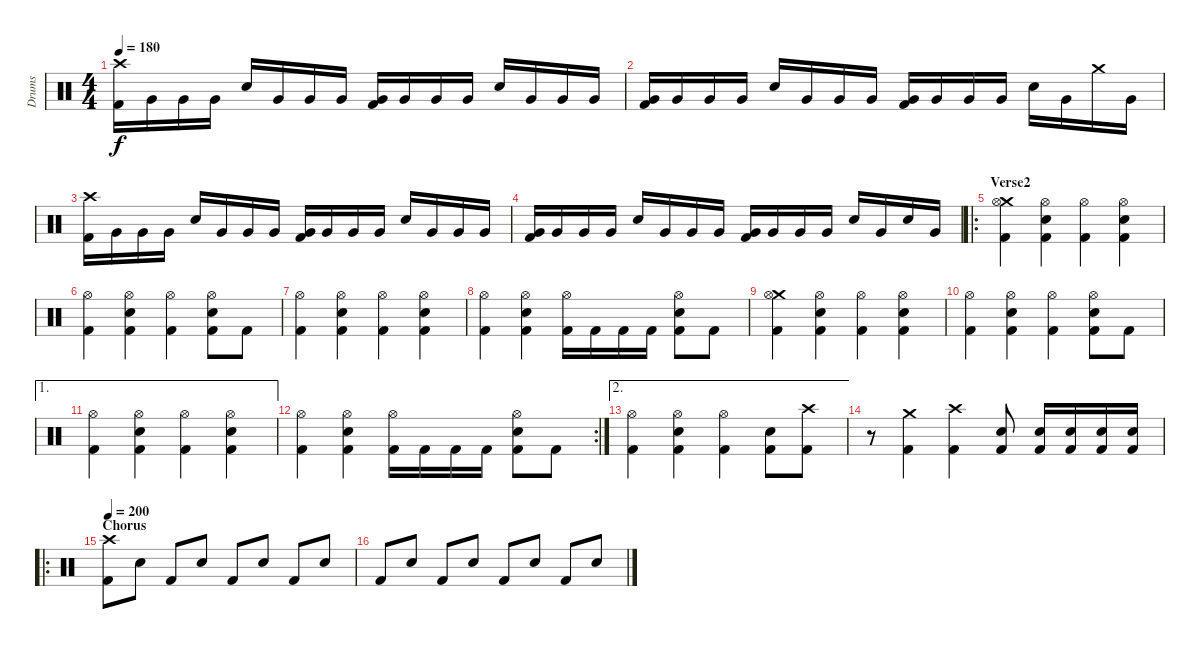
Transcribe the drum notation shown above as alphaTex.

\track ("Drums" "Drums") {instrument percussion}
\staff {score}
\articulation defaults
\ts (4 4)
\tempo 180
\clef neutral
\ks c
("Crash high (hit)" "Kick (hit) 2").16{dy f} "Very Low Tom (hit)".16 "Very Low Tom (hit)".16 "Very Low Tom (hit)".16 "Snare (hit) 2".16 "Very Low Tom (hit)".16 "Very Low Tom (hit)".16 "Very Low Tom (hit)".16 ("Kick (hit) 2" "Very Low Tom (hit)").16 "Very Low Tom (hit)".16 "Very Low Tom (hit)".16 "Very Low Tom (hit)".16 "Snare (hit) 2".16 "Very Low Tom (hit)".16 "Very Low Tom (hit)".16 "Very Low Tom (hit)".16 |
("Kick (hit) 2" "Very Low Tom (hit)").16 "Very Low Tom (hit)".16 "Very Low Tom (hit)".16 "Very Low Tom (hit)".16 "Snare (hit) 2".16 "Very Low Tom (hit)".16 "Very Low Tom (hit)".16 "Very Low Tom (hit)".16 ("Kick (hit) 2" "Very Low Tom (hit)").16 "Very Low Tom (hit)".16 "Very Low Tom (hit)".16 "Very Low Tom (hit)".16 "Snare (hit) 2".16 "Very Low Tom (hit)".16 "Crash medium (hit)".16 "Very Low Tom (hit)".16 |
("Crash high (hit)" "Kick (hit) 2").16 "Very Low Tom (hit)".16 "Very Low Tom (hit)".16 "Very Low Tom (hit)".16 "Snare (hit) 2".16 "Very Low Tom (hit)".16 "Very Low Tom (hit)".16 "Very Low Tom (hit)".16 ("Kick (hit) 2" "Very Low Tom (hit)").16 "Very Low Tom (hit)".16 "Very Low Tom (hit)".16 "Very Low Tom (hit)".16 "Snare (hit) 2".16 "Very Low Tom (hit)".16 "Very Low Tom (hit)".16 "Very Low Tom (hit)".16 |
("Kick (hit) 2" "Very Low Tom (hit)").16 "Very Low Tom (hit)".16 "Very Low Tom (hit)".16 "Very Low Tom (hit)".16 "Snare (hit) 2".16 "Very Low Tom (hit)".16 "Very Low Tom (hit)".16 "Very Low Tom (hit)".16 ("Kick (hit) 2" "Very Low Tom (hit)").16 "Very Low Tom (hit)".16 "Very Low Tom (hit)".16 "Very Low Tom (hit)".16 "Snare (hit) 2".16 "Very Low Tom (hit)".16 "Snare (hit) 2".16 "Very Low Tom (hit)".16 |
\ro
\section ("" "Verse2")
("Crash medium (hit)" "Hi-Hat (open)" "Kick (hit) 2").4{volume 12} ("Hi-Hat (open)" "Snare (hit) 2" "Kick (hit) 2").4 ("Hi-Hat (open)" "Kick (hit) 2").4 ("Hi-Hat (open)" "Snare (hit) 2" "Kick (hit) 2").4 |
("Hi-Hat (open)" "Kick (hit) 2").4 ("Hi-Hat (open)" "Snare (hit) 2" "Kick (hit) 2").4 ("Hi-Hat (open)" "Kick (hit) 2").4 ("Hi-Hat (open)" "Snare (hit) 2" "Kick (hit) 2").8 "Kick (hit) 2".8 |
("Hi-Hat (open)" "Kick (hit) 2").4 ("Hi-Hat (open)" "Snare (hit) 2" "Kick (hit) 2").4 ("Hi-Hat (open)" "Kick (hit) 2").4 ("Hi-Hat (open)" "Snare (hit) 2" "Kick (hit) 2").4 |
("Hi-Hat (open)" "Kick (hit) 2").4 ("Hi-Hat (open)" "Snare (hit) 2" "Kick (hit) 2").4 ("Hi-Hat (open)" "Kick (hit) 2").16 "Kick (hit) 2".16 "Kick (hit) 2".16 "Kick (hit) 2".16 ("Hi-Hat (open)" "Snare (hit) 2" "Kick (hit) 2").8 "Kick (hit) 2".8 |
("Crash medium (hit)" "Hi-Hat (open)" "Kick (hit) 2").4 ("Hi-Hat (open)" "Snare (hit) 2" "Kick (hit) 2").4 ("Hi-Hat (open)" "Kick (hit) 2").4 ("Hi-Hat (open)" "Snare (hit) 2" "Kick (hit) 2").4 |
("Hi-Hat (open)" "Kick (hit) 2").4 ("Hi-Hat (open)" "Snare (hit) 2" "Kick (hit) 2").4 ("Hi-Hat (open)" "Kick (hit) 2").4 ("Hi-Hat (open)" "Snare (hit) 2" "Kick (hit) 2").8 "Kick (hit) 2".8 |
\ae 1
("Hi-Hat (open)" "Kick (hit) 2").4 ("Hi-Hat (open)" "Snare (hit) 2" "Kick (hit) 2").4 ("Hi-Hat (open)" "Kick (hit) 2").4 ("Hi-Hat (open)" "Snare (hit) 2" "Kick (hit) 2").4 |
\rc 2
("Hi-Hat (open)" "Kick (hit) 2").4 ("Hi-Hat (open)" "Snare (hit) 2" "Kick (hit) 2").4 ("Hi-Hat (open)" "Kick (hit) 2").16 "Kick (hit) 2".16 "Kick (hit) 2".16 "Kick (hit) 2".16 ("Hi-Hat (open)" "Snare (hit) 2" "Kick (hit) 2").8 "Kick (hit) 2".8 |
\ae 2
("Hi-Hat (open)" "Kick (hit) 2").4 ("Hi-Hat (open)" "Snare (hit) 2" "Kick (hit) 2").4 ("Hi-Hat (open)" "Kick (hit) 2").4 ("Snare (hit) 2" "Kick (hit) 2").8 ("Crash high (hit)" "Kick (hit) 2").8 |
r.8 ("Crash medium (hit)" "Kick (hit) 2").4 ("Crash high (hit)" "Kick (hit) 2").4 ("Snare (hit) 2" "Kick (hit) 2").8 ("Snare (hit) 2" "Kick (hit) 2").16 ("Snare (hit) 2" "Kick (hit) 2").16 ("Snare (hit) 2" "Kick (hit) 2").16 ("Snare (hit) 2" "Kick (hit) 2").16 |
\ro
\section ("" "Chorus")
\tempo 200
("Crash high (hit)" "Kick (hit) 2").8 "Snare (hit) 2".8 "Kick (hit) 2".8 "Snare (hit) 2".8 "Kick (hit) 2".8 "Snare (hit) 2".8 "Kick (hit) 2".8 "Snare (hit) 2".8 |
"Kick (hit) 2".8 "Snare (hit) 2".8 "Kick (hit) 2".8 "Snare (hit) 2".8 "Kick (hit) 2".8 "Snare (hit) 2".8 "Kick (hit) 2".8 "Snare (hit) 2".8
